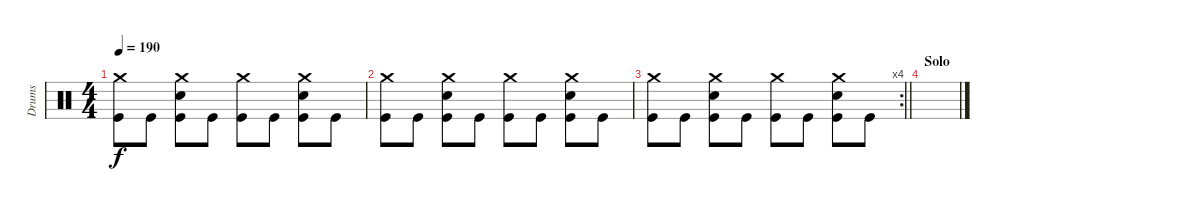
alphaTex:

\track ("Drums" "Drums") {instrument percussion}
\staff {score}
\articulation defaults
\ts (4 4)
\tempo 190
\clef neutral
\ks c
("Crash medium (hit)" "Kick (hit)").8{dy f} "Kick (hit)".8 ("Crash medium (hit)" "Snare (hit) 2" "Kick (hit)").8 "Kick (hit)".8 ("Crash medium (hit)" "Kick (hit)").8 "Kick (hit)".8 ("Crash medium (hit)" "Snare (hit) 2" "Kick (hit)").8 "Kick (hit)".8 |
("Crash medium (hit)" "Kick (hit)").8 "Kick (hit)".8 ("Crash medium (hit)" "Snare (hit) 2" "Kick (hit)").8 "Kick (hit)".8 ("Crash medium (hit)" "Kick (hit)").8 "Kick (hit)".8 ("Crash medium (hit)" "Snare (hit) 2" "Kick (hit)").8 "Kick (hit)".8 |
\rc 4
\barLineRight lightlight
("Crash medium (hit)" "Kick (hit)").8 "Kick (hit)".8 ("Crash medium (hit)" "Snare (hit) 2" "Kick (hit)").8 "Kick (hit)".8 ("Crash medium (hit)" "Kick (hit)").8 "Kick (hit)".8 ("Crash medium (hit)" "Snare (hit) 2" "Kick (hit)").8 "Kick (hit)".8 |
\section ("" "Solo")
